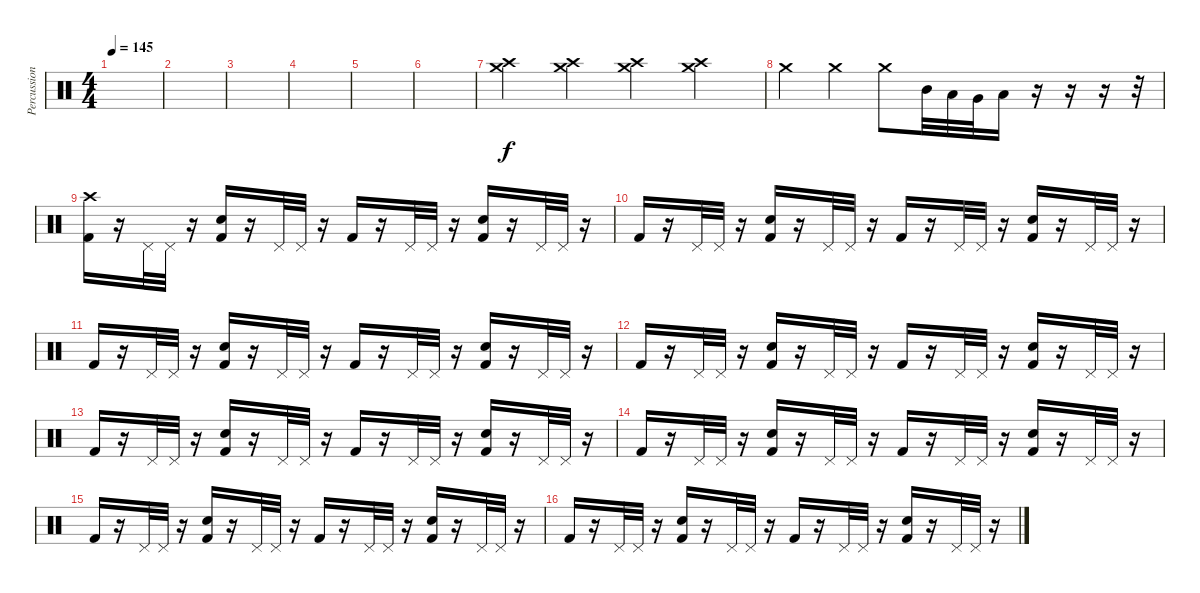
\track ("Percussions" "Percussion") {instrument percussion}
\staff {score}
\articulation defaults
\ts (4 4)
\tempo 145
\clef neutral
\ks c
|
|
|
|
|
|
("Crash high (hit)" "Crash medium (hit)").4 ("Crash high (hit)" "Crash medium (hit)").4 ("Crash high (hit)" "Crash medium (hit)").4 ("Crash high (hit)" "Crash medium (hit)").4 |
"Crash medium (hit)".4 "Crash medium (hit)".4 "Crash medium (hit)".8 "Mid Tom (hit)".32 "Low Tom (hit)".32 "Very Low Tom (hit)".32 "Low Floor Tom (hit)".16 r.16 r.16 r.16 r.32 |
("Kick (hit) 2" "Crash high (hit)").16 r.16 "Pedal Hi-Hat (hit)".32 "Pedal Hi-Hat (hit)".32 r.16 ("Kick (hit) 2" "Electric Snare (hit)").16 r.16 "Pedal Hi-Hat (hit)".32 "Pedal Hi-Hat (hit)".32 r.16 "Kick (hit) 2".16 r.16 "Pedal Hi-Hat (hit)".32 "Pedal Hi-Hat (hit)".32 r.16 ("Kick (hit) 2" "Electric Snare (hit)").16 r.16 "Pedal Hi-Hat (hit)".32 "Pedal Hi-Hat (hit)".32 r.16 |
"Kick (hit) 2".16 r.16 "Pedal Hi-Hat (hit)".32 "Pedal Hi-Hat (hit)".32 r.16 ("Kick (hit) 2" "Electric Snare (hit)").16 r.16 "Pedal Hi-Hat (hit)".32 "Pedal Hi-Hat (hit)".32 r.16 "Kick (hit) 2".16 r.16 "Pedal Hi-Hat (hit)".32 "Pedal Hi-Hat (hit)".32 r.16 ("Kick (hit) 2" "Electric Snare (hit)").16 r.16 "Pedal Hi-Hat (hit)".32 "Pedal Hi-Hat (hit)".32 r.16 |
"Kick (hit) 2".16 r.16 "Pedal Hi-Hat (hit)".32 "Pedal Hi-Hat (hit)".32 r.16 ("Kick (hit) 2" "Electric Snare (hit)").16 r.16 "Pedal Hi-Hat (hit)".32 "Pedal Hi-Hat (hit)".32 r.16 "Kick (hit) 2".16 r.16 "Pedal Hi-Hat (hit)".32 "Pedal Hi-Hat (hit)".32 r.16 ("Kick (hit) 2" "Electric Snare (hit)").16 r.16 "Pedal Hi-Hat (hit)".32 "Pedal Hi-Hat (hit)".32 r.16 |
"Kick (hit) 2".16 r.16 "Pedal Hi-Hat (hit)".32 "Pedal Hi-Hat (hit)".32 r.16 ("Kick (hit) 2" "Electric Snare (hit)").16 r.16 "Pedal Hi-Hat (hit)".32 "Pedal Hi-Hat (hit)".32 r.16 "Kick (hit) 2".16 r.16 "Pedal Hi-Hat (hit)".32 "Pedal Hi-Hat (hit)".32 r.16 ("Kick (hit) 2" "Electric Snare (hit)").16 r.16 "Pedal Hi-Hat (hit)".32 "Pedal Hi-Hat (hit)".32 r.16 |
"Kick (hit) 2".16 r.16 "Pedal Hi-Hat (hit)".32 "Pedal Hi-Hat (hit)".32 r.16 ("Kick (hit) 2" "Electric Snare (hit)").16 r.16 "Pedal Hi-Hat (hit)".32 "Pedal Hi-Hat (hit)".32 r.16 "Kick (hit) 2".16 r.16 "Pedal Hi-Hat (hit)".32 "Pedal Hi-Hat (hit)".32 r.16 ("Kick (hit) 2" "Electric Snare (hit)").16 r.16 "Pedal Hi-Hat (hit)".32 "Pedal Hi-Hat (hit)".32 r.16 |
"Kick (hit) 2".16 r.16 "Pedal Hi-Hat (hit)".32 "Pedal Hi-Hat (hit)".32 r.16 ("Kick (hit) 2" "Electric Snare (hit)").16 r.16 "Pedal Hi-Hat (hit)".32 "Pedal Hi-Hat (hit)".32 r.16 "Kick (hit) 2".16 r.16 "Pedal Hi-Hat (hit)".32 "Pedal Hi-Hat (hit)".32 r.16 ("Kick (hit) 2" "Electric Snare (hit)").16 r.16 "Pedal Hi-Hat (hit)".32 "Pedal Hi-Hat (hit)".32 r.16 |
"Kick (hit) 2".16 r.16 "Pedal Hi-Hat (hit)".32 "Pedal Hi-Hat (hit)".32 r.16 ("Kick (hit) 2" "Electric Snare (hit)").16 r.16 "Pedal Hi-Hat (hit)".32 "Pedal Hi-Hat (hit)".32 r.16 "Kick (hit) 2".16 r.16 "Pedal Hi-Hat (hit)".32 "Pedal Hi-Hat (hit)".32 r.16 ("Kick (hit) 2" "Electric Snare (hit)").16 r.16 "Pedal Hi-Hat (hit)".32 "Pedal Hi-Hat (hit)".32 r.16 |
"Kick (hit) 2".16 r.16 "Pedal Hi-Hat (hit)".32 "Pedal Hi-Hat (hit)".32 r.16 ("Kick (hit) 2" "Electric Snare (hit)").16 r.16 "Pedal Hi-Hat (hit)".32 "Pedal Hi-Hat (hit)".32 r.16 "Kick (hit) 2".16 r.16 "Pedal Hi-Hat (hit)".32 "Pedal Hi-Hat (hit)".32 r.16 ("Kick (hit) 2" "Electric Snare (hit)").16 r.16 "Pedal Hi-Hat (hit)".32 "Pedal Hi-Hat (hit)".32 r.16
